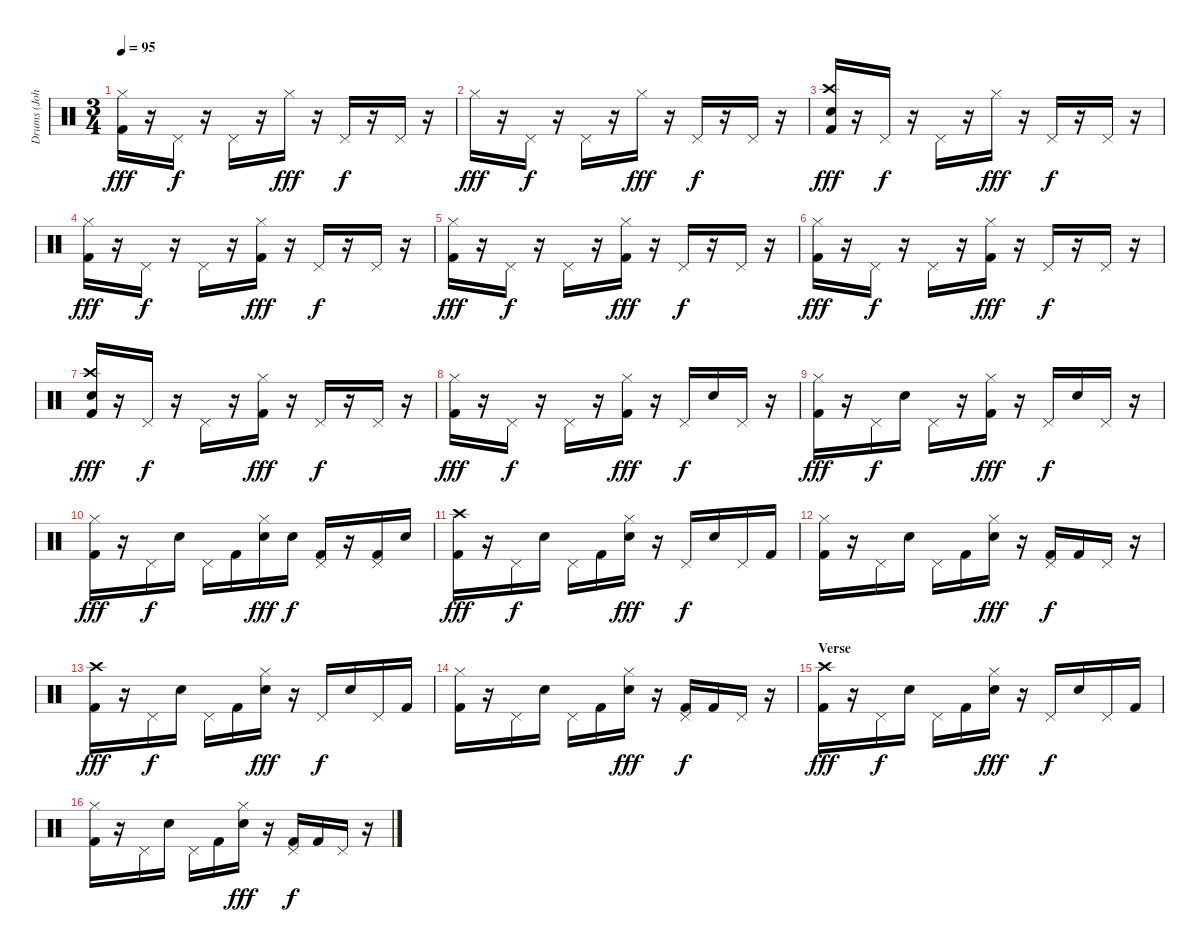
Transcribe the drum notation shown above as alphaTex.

\track ("Drums (John Otto)" "Drums (Joh") {instrument percussion}
\staff {score}
\articulation defaults
\ts (3 4)
\tempo 95
\clef neutral
\ks c
("Hi-Hat (closed)" "Kick (hit) 2").16{dy fff} r.16 "Pedal Hi-Hat (hit)".16{dy f} r.16 "Pedal Hi-Hat (hit)".16 r.16 "Hi-Hat (closed)".16{dy fff} r.16 "Pedal Hi-Hat (hit)".16{dy f} r.16 "Pedal Hi-Hat (hit)".16 r.16 |
"Hi-Hat (closed)".16{dy fff} r.16 "Pedal Hi-Hat (hit)".16{dy f} r.16 "Pedal Hi-Hat (hit)".16 r.16 "Hi-Hat (closed)".16{dy fff} r.16 "Pedal Hi-Hat (hit)".16{dy f} r.16 "Pedal Hi-Hat (hit)".16 r.16 |
("Crash high (hit)" "Electric Snare (hit)" "Kick (hit) 2").16{dy fff} r.16 "Pedal Hi-Hat (hit)".16{dy f} r.16 "Pedal Hi-Hat (hit)".16 r.16 "Hi-Hat (closed)".16{dy fff} r.16 "Pedal Hi-Hat (hit)".16{dy f} r.16 "Pedal Hi-Hat (hit)".16 r.16 |
("Hi-Hat (closed)" "Kick (hit) 2").16{dy fff} r.16 "Pedal Hi-Hat (hit)".16{dy f} r.16 "Pedal Hi-Hat (hit)".16 r.16 ("Hi-Hat (closed)" "Kick (hit) 2").16{dy fff} r.16 "Pedal Hi-Hat (hit)".16{dy f} r.16 "Pedal Hi-Hat (hit)".16 r.16 |
("Hi-Hat (closed)" "Kick (hit) 2").16{dy fff} r.16 "Pedal Hi-Hat (hit)".16{dy f} r.16 "Pedal Hi-Hat (hit)".16 r.16 ("Hi-Hat (closed)" "Kick (hit) 2").16{dy fff} r.16 "Pedal Hi-Hat (hit)".16{dy f} r.16 "Pedal Hi-Hat (hit)".16 r.16 |
("Hi-Hat (closed)" "Kick (hit) 2").16{dy fff} r.16 "Pedal Hi-Hat (hit)".16{dy f} r.16 "Pedal Hi-Hat (hit)".16 r.16 ("Hi-Hat (closed)" "Kick (hit) 2").16{dy fff} r.16 "Pedal Hi-Hat (hit)".16{dy f} r.16 "Pedal Hi-Hat (hit)".16 r.16 |
("Crash high (hit)" "Electric Snare (hit)" "Kick (hit) 2").16{dy fff} r.16 "Pedal Hi-Hat (hit)".16{dy f} r.16 "Pedal Hi-Hat (hit)".16 r.16 ("Hi-Hat (closed)" "Kick (hit) 2").16{dy fff} r.16 "Pedal Hi-Hat (hit)".16{dy f} r.16 "Pedal Hi-Hat (hit)".16 r.16 |
("Hi-Hat (closed)" "Kick (hit) 2").16{dy fff} r.16 "Pedal Hi-Hat (hit)".16{dy f} r.16 "Pedal Hi-Hat (hit)".16 r.16 ("Hi-Hat (closed)" "Kick (hit) 2").16{dy fff} r.16 "Pedal Hi-Hat (hit)".16{dy f} "Electric Snare (hit)".16 "Pedal Hi-Hat (hit)".16 r.16 |
("Hi-Hat (closed)" "Kick (hit) 2").16{dy fff} r.16 "Pedal Hi-Hat (hit)".16{dy f} "Electric Snare (hit)".16 "Pedal Hi-Hat (hit)".16 r.16 ("Hi-Hat (closed)" "Kick (hit) 2").16{dy fff} r.16 "Pedal Hi-Hat (hit)".16{dy f} "Electric Snare (hit)".16 "Pedal Hi-Hat (hit)".16 r.16 |
("Hi-Hat (closed)" "Kick (hit) 2").16{dy fff} r.16 "Pedal Hi-Hat (hit)".16{dy f} "Electric Snare (hit)".16 "Pedal Hi-Hat (hit)".16 "Kick (hit) 2".16 ("Hi-Hat (closed)" "Electric Snare (hit)").16{dy fff} "Electric Snare (hit)".16{dy f} ("Pedal Hi-Hat (hit)" "Kick (hit) 2").16 r.16 ("Pedal Hi-Hat (hit)" "Kick (hit) 2").16 "Electric Snare (hit)".16 |
("Crash high (hit)" "Kick (hit) 2").16{dy fff} r.16 "Pedal Hi-Hat (hit)".16{dy f} "Electric Snare (hit)".16 "Pedal Hi-Hat (hit)".16 "Kick (hit) 2".16 ("Hi-Hat (closed)" "Electric Snare (hit)").16{dy fff} r.16 "Pedal Hi-Hat (hit)".16{dy f} "Electric Snare (hit)".16 "Pedal Hi-Hat (hit)".16 "Kick (hit) 2".16 |
("Hi-Hat (closed)" "Kick (hit) 2").16 r.16 "Pedal Hi-Hat (hit)".16 "Electric Snare (hit)".16 "Pedal Hi-Hat (hit)".16 "Kick (hit) 2".16 ("Hi-Hat (closed)" "Electric Snare (hit)").16{dy fff} r.16 ("Pedal Hi-Hat (hit)" "Kick (hit) 2").16{dy f} "Kick (hit) 2".16 "Pedal Hi-Hat (hit)".16 r.16 |
("Crash high (hit)" "Kick (hit) 2").16{dy fff} r.16 "Pedal Hi-Hat (hit)".16{dy f} "Electric Snare (hit)".16 "Pedal Hi-Hat (hit)".16 "Kick (hit) 2".16 ("Hi-Hat (closed)" "Electric Snare (hit)").16{dy fff} r.16 "Pedal Hi-Hat (hit)".16{dy f} "Electric Snare (hit)".16 "Pedal Hi-Hat (hit)".16 "Kick (hit) 2".16 |
("Hi-Hat (closed)" "Kick (hit) 2").16 r.16 "Pedal Hi-Hat (hit)".16 "Electric Snare (hit)".16 "Pedal Hi-Hat (hit)".16 "Kick (hit) 2".16 ("Hi-Hat (closed)" "Electric Snare (hit)").16{dy fff} r.16 ("Pedal Hi-Hat (hit)" "Kick (hit) 2").16{dy f} "Kick (hit) 2".16 "Pedal Hi-Hat (hit)".16 r.16 |
\section ("" "Verse")
("Crash high (hit)" "Kick (hit) 2").16{dy fff} r.16 "Pedal Hi-Hat (hit)".16{dy f} "Electric Snare (hit)".16 "Pedal Hi-Hat (hit)".16 "Kick (hit) 2".16 ("Hi-Hat (closed)" "Electric Snare (hit)").16{dy fff} r.16 "Pedal Hi-Hat (hit)".16{dy f} "Electric Snare (hit)".16 "Pedal Hi-Hat (hit)".16 "Kick (hit) 2".16 |
("Hi-Hat (closed)" "Kick (hit) 2").16 r.16 "Pedal Hi-Hat (hit)".16 "Electric Snare (hit)".16 "Pedal Hi-Hat (hit)".16 "Kick (hit) 2".16 ("Hi-Hat (closed)" "Electric Snare (hit)").16{dy fff} r.16 ("Pedal Hi-Hat (hit)" "Kick (hit) 2").16{dy f} "Kick (hit) 2".16 "Pedal Hi-Hat (hit)".16 r.16
